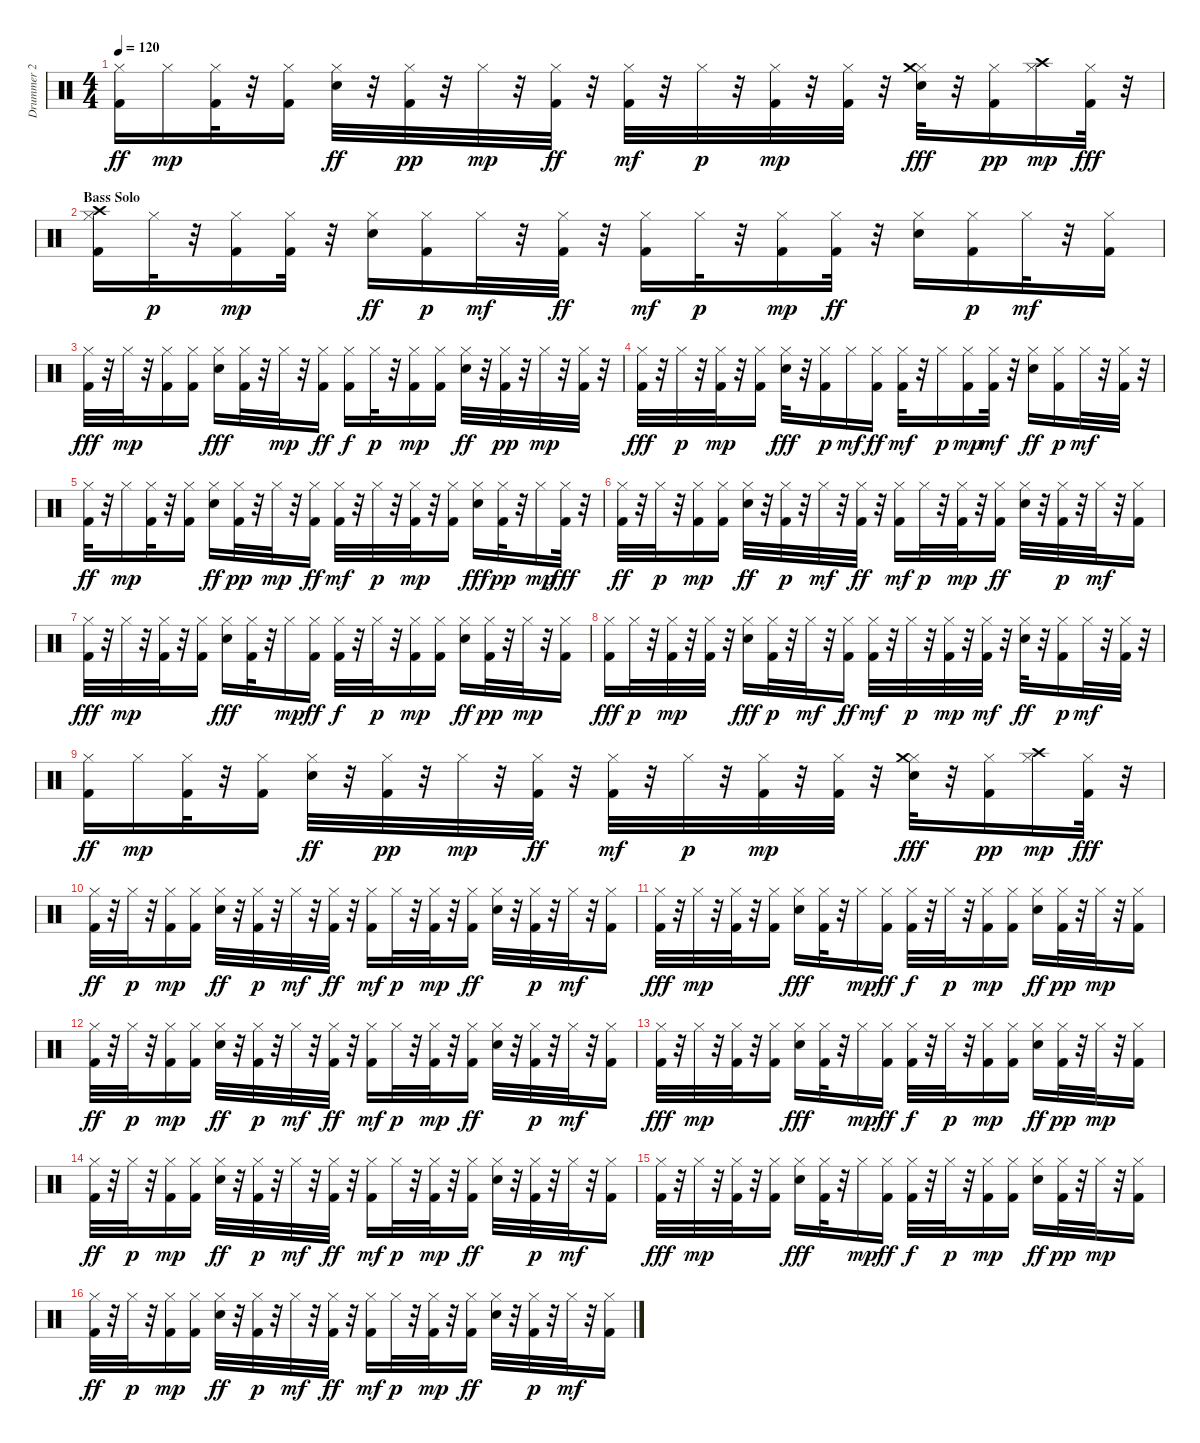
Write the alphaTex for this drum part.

\track ("Drummer 2" "Drummer 2") {instrument percussion}
\staff {score}
\articulation defaults
\ts (4 4)
\tempo 120
\clef neutral
\ks c
("Kick (hit) 2" "Hi-Hat (closed)").16{dy ff} "Hi-Hat (closed)".16{dy mp} ("Kick (hit) 2" "Hi-Hat (closed)").32 r.32 ("Kick (hit) 2" "Hi-Hat (closed)").16 ("Hi-Hat (closed)" "Snare (hit) 2").32{dy ff} r.32 ("Kick (hit) 2" "Hi-Hat (closed)").32{dy pp} r.32 "Hi-Hat (closed)".32{dy mp} r.32 ("Kick (hit) 2" "Hi-Hat (closed)").32{dy ff} r.32 ("Kick (hit) 2" "Hi-Hat (closed)").32{dy mf} r.32 "Hi-Hat (closed)".32{dy p} r.32 ("Kick (hit) 2" "Hi-Hat (closed)").32{dy mp} r.32 ("Kick (hit) 2" "Hi-Hat (closed)").32 r.32 ("Hi-Hat (closed)" "Crash medium (hit)" "Snare (hit) 2").32{dy fff} r.32 ("Kick (hit) 2" "Hi-Hat (closed)").16{dy pp} ("Hi-Hat (closed)" "Crash high (hit)").16{dy mp} ("Hi-Hat (closed)" "Kick (hit) 2").32{dy fff} r.32 |
\section ("" "Bass Solo")
("Kick (hit) 2" "Hi-Hat (closed)" "Crash high (hit)").16 "Hi-Hat (closed)".32{dy p} r.32 ("Kick (hit) 2" "Hi-Hat (closed)").16{dy mp} ("Kick (hit) 2" "Hi-Hat (closed)").32 r.32 ("Hi-Hat (closed)" "Snare (hit) 2").16{dy ff} ("Kick (hit) 2" "Hi-Hat (closed)").16{dy p} "Hi-Hat (closed)".32{dy mf} r.32 ("Kick (hit) 2" "Hi-Hat (closed)").32{dy ff} r.32 ("Kick (hit) 2" "Hi-Hat (closed)").16{dy mf} "Hi-Hat (closed)".32{dy p} r.32 ("Kick (hit) 2" "Hi-Hat (closed)").16{dy mp} ("Kick (hit) 2" "Hi-Hat (closed)").32{dy ff} r.32 ("Hi-Hat (closed)" "Snare (hit) 2").16 ("Kick (hit) 2" "Hi-Hat (closed)").16{dy p} "Hi-Hat (closed)".32{dy mf} r.32 ("Kick (hit) 2" "Hi-Hat (closed)").16 |
("Hi-Hat (closed)" "Kick (hit) 2").32{dy fff} r.32 "Hi-Hat (closed)".32{dy mp} r.32 ("Kick (hit) 2" "Hi-Hat (closed)").16 ("Kick (hit) 2" "Hi-Hat (closed)").16 ("Hi-Hat (closed)" "Snare (hit) 2").16{dy fff} ("Hi-Hat (closed)" "Kick (hit) 2").32 r.32 "Hi-Hat (closed)".32{dy mp} r.32 ("Kick (hit) 2" "Hi-Hat (closed)").16{dy ff} ("Hi-Hat (closed)" "Kick (hit) 2").16{dy f} "Hi-Hat (closed)".32{dy p} r.32 ("Kick (hit) 2" "Hi-Hat (closed)").16{dy mp} ("Kick (hit) 2" "Hi-Hat (closed)").16 ("Hi-Hat (closed)" "Snare (hit) 2").32{dy ff} r.32 ("Kick (hit) 2" "Hi-Hat (closed)").32{dy pp} r.32 "Hi-Hat (closed)".32{dy mp} r.32 ("Kick (hit) 2" "Hi-Hat (closed)").32 r.32 |
("Hi-Hat (closed)" "Kick (hit) 2").32{dy fff} r.32 "Hi-Hat (closed)".32{dy p} r.32 ("Kick (hit) 2" "Hi-Hat (closed)").32{dy mp} r.32 ("Kick (hit) 2" "Hi-Hat (closed)").16 ("Hi-Hat (closed)" "Snare (hit) 2").32{dy fff} r.32 ("Kick (hit) 2" "Hi-Hat (closed)").16{dy p} "Hi-Hat (closed)".16{dy mf} ("Hi-Hat (closed)" "Kick (hit) 2").16{dy ff} ("Kick (hit) 2" "Hi-Hat (closed)").32{dy mf} r.32 "Hi-Hat (closed)".16{dy p} ("Kick (hit) 2" "Hi-Hat (closed)").16{dy mp} ("Hi-Hat (closed)" "Kick (hit) 2").32{dy mf} r.32 ("Hi-Hat (closed)" "Snare (hit) 2").16{dy ff} ("Kick (hit) 2" "Hi-Hat (closed)").16{dy p} "Hi-Hat (closed)".32{dy mf} r.32 ("Kick (hit) 2" "Hi-Hat (closed)").32 r.32 |
("Kick (hit) 2" "Hi-Hat (closed)").32{dy ff} r.32 "Hi-Hat (closed)".16{dy mp} ("Kick (hit) 2" "Hi-Hat (closed)").32 r.32 ("Kick (hit) 2" "Hi-Hat (closed)").16 ("Hi-Hat (closed)" "Snare (hit) 2").16{dy ff} ("Kick (hit) 2" "Hi-Hat (closed)").32{dy pp} r.32 "Hi-Hat (closed)".32{dy mp} r.32 ("Kick (hit) 2" "Hi-Hat (closed)").16{dy ff} ("Kick (hit) 2" "Hi-Hat (closed)").32{dy mf} r.32 "Hi-Hat (closed)".32{dy p} r.32 ("Kick (hit) 2" "Hi-Hat (closed)").32{dy mp} r.32 ("Kick (hit) 2" "Hi-Hat (closed)").16 ("Hi-Hat (closed)" "Snare (hit) 2").16{dy fff} ("Kick (hit) 2" "Hi-Hat (closed)").32{dy pp} r.32 "Hi-Hat (closed)".16{dy mp} ("Hi-Hat (closed)" "Kick (hit) 2").32{dy fff} r.32 |
("Kick (hit) 2" "Hi-Hat (closed)").32{dy ff} r.32 "Hi-Hat (closed)".32{dy p} r.32 ("Kick (hit) 2" "Hi-Hat (closed)").16{dy mp} ("Kick (hit) 2" "Hi-Hat (closed)").16 ("Hi-Hat (closed)" "Snare (hit) 2").32{dy ff} r.32 ("Kick (hit) 2" "Hi-Hat (closed)").32{dy p} r.32 "Hi-Hat (closed)".32{dy mf} r.32 ("Kick (hit) 2" "Hi-Hat (closed)").32{dy ff} r.32 ("Kick (hit) 2" "Hi-Hat (closed)").16{dy mf} "Hi-Hat (closed)".32{dy p} r.32 ("Kick (hit) 2" "Hi-Hat (closed)").32{dy mp} r.32 ("Kick (hit) 2" "Hi-Hat (closed)").16{dy ff} ("Hi-Hat (closed)" "Snare (hit) 2").32 r.32 ("Kick (hit) 2" "Hi-Hat (closed)").32{dy p} r.32 "Hi-Hat (closed)".32{dy mf} r.32 ("Kick (hit) 2" "Hi-Hat (closed)").16 |
("Hi-Hat (closed)" "Kick (hit) 2").32{dy fff} r.32 "Hi-Hat (closed)".32{dy mp} r.32 ("Kick (hit) 2" "Hi-Hat (closed)").32 r.32 ("Kick (hit) 2" "Hi-Hat (closed)").16 ("Hi-Hat (closed)" "Snare (hit) 2").16{dy fff} ("Hi-Hat (closed)" "Kick (hit) 2").32 r.32 "Hi-Hat (closed)".16{dy mp} ("Kick (hit) 2" "Hi-Hat (closed)").16{dy ff} ("Hi-Hat (closed)" "Kick (hit) 2").32{dy f} r.32 "Hi-Hat (closed)".32{dy p} r.32 ("Kick (hit) 2" "Hi-Hat (closed)").16{dy mp} ("Kick (hit) 2" "Hi-Hat (closed)").16 ("Hi-Hat (closed)" "Snare (hit) 2").16{dy ff} ("Kick (hit) 2" "Hi-Hat (closed)").32{dy pp} r.32 "Hi-Hat (closed)".32{dy mp} r.32 ("Kick (hit) 2" "Hi-Hat (closed)").16 |
("Hi-Hat (closed)" "Kick (hit) 2").16{dy fff} "Hi-Hat (closed)".32{dy p} r.32 ("Kick (hit) 2" "Hi-Hat (closed)").32{dy mp} r.32 ("Kick (hit) 2" "Hi-Hat (closed)").32 r.32 ("Hi-Hat (closed)" "Snare (hit) 2").16{dy fff} ("Kick (hit) 2" "Hi-Hat (closed)").32{dy p} r.32 "Hi-Hat (closed)".32{dy mf} r.32 ("Hi-Hat (closed)" "Kick (hit) 2").16{dy ff} ("Kick (hit) 2" "Hi-Hat (closed)").32{dy mf} r.32 "Hi-Hat (closed)".32{dy p} r.32 ("Kick (hit) 2" "Hi-Hat (closed)").32{dy mp} r.32 ("Hi-Hat (closed)" "Kick (hit) 2").32{dy mf} r.32 ("Hi-Hat (closed)" "Snare (hit) 2").32{dy ff} r.32 ("Kick (hit) 2" "Hi-Hat (closed)").16{dy p} "Hi-Hat (closed)".32{dy mf} r.32 ("Kick (hit) 2" "Hi-Hat (closed)").32 r.32 |
("Kick (hit) 2" "Hi-Hat (closed)").16{dy ff} "Hi-Hat (closed)".16{dy mp} ("Kick (hit) 2" "Hi-Hat (closed)").32 r.32 ("Kick (hit) 2" "Hi-Hat (closed)").16 ("Hi-Hat (closed)" "Snare (hit) 2").32{dy ff} r.32 ("Kick (hit) 2" "Hi-Hat (closed)").32{dy pp} r.32 "Hi-Hat (closed)".32{dy mp} r.32 ("Kick (hit) 2" "Hi-Hat (closed)").32{dy ff} r.32 ("Kick (hit) 2" "Hi-Hat (closed)").32{dy mf} r.32 "Hi-Hat (closed)".32{dy p} r.32 ("Kick (hit) 2" "Hi-Hat (closed)").32{dy mp} r.32 ("Kick (hit) 2" "Hi-Hat (closed)").32 r.32 ("Hi-Hat (closed)" "Crash medium (hit)" "Snare (hit) 2").32{dy fff} r.32 ("Kick (hit) 2" "Hi-Hat (closed)").16{dy pp} ("Hi-Hat (closed)" "Crash high (hit)").16{dy mp} ("Hi-Hat (closed)" "Kick (hit) 2").32{dy fff} r.32 |
("Kick (hit) 2" "Hi-Hat (closed)").32{dy ff} r.32 "Hi-Hat (closed)".32{dy p} r.32 ("Kick (hit) 2" "Hi-Hat (closed)").16{dy mp} ("Kick (hit) 2" "Hi-Hat (closed)").16 ("Hi-Hat (closed)" "Snare (hit) 2").32{dy ff} r.32 ("Kick (hit) 2" "Hi-Hat (closed)").32{dy p} r.32 "Hi-Hat (closed)".32{dy mf} r.32 ("Kick (hit) 2" "Hi-Hat (closed)").32{dy ff} r.32 ("Kick (hit) 2" "Hi-Hat (closed)").16{dy mf} "Hi-Hat (closed)".32{dy p} r.32 ("Kick (hit) 2" "Hi-Hat (closed)").32{dy mp} r.32 ("Kick (hit) 2" "Hi-Hat (closed)").16{dy ff} ("Hi-Hat (closed)" "Snare (hit) 2").32 r.32 ("Kick (hit) 2" "Hi-Hat (closed)").32{dy p} r.32 "Hi-Hat (closed)".32{dy mf} r.32 ("Kick (hit) 2" "Hi-Hat (closed)").16 |
("Hi-Hat (closed)" "Kick (hit) 2").32{dy fff} r.32 "Hi-Hat (closed)".32{dy mp} r.32 ("Kick (hit) 2" "Hi-Hat (closed)").32 r.32 ("Kick (hit) 2" "Hi-Hat (closed)").16 ("Hi-Hat (closed)" "Snare (hit) 2").16{dy fff} ("Hi-Hat (closed)" "Kick (hit) 2").32 r.32 "Hi-Hat (closed)".16{dy mp} ("Kick (hit) 2" "Hi-Hat (closed)").16{dy ff} ("Hi-Hat (closed)" "Kick (hit) 2").32{dy f} r.32 "Hi-Hat (closed)".32{dy p} r.32 ("Kick (hit) 2" "Hi-Hat (closed)").16{dy mp} ("Kick (hit) 2" "Hi-Hat (closed)").16 ("Hi-Hat (closed)" "Snare (hit) 2").16{dy ff} ("Kick (hit) 2" "Hi-Hat (closed)").32{dy pp} r.32 "Hi-Hat (closed)".32{dy mp} r.32 ("Kick (hit) 2" "Hi-Hat (closed)").16 |
("Kick (hit) 2" "Hi-Hat (closed)").32{dy ff} r.32 "Hi-Hat (closed)".32{dy p} r.32 ("Kick (hit) 2" "Hi-Hat (closed)").16{dy mp} ("Kick (hit) 2" "Hi-Hat (closed)").16 ("Hi-Hat (closed)" "Snare (hit) 2").32{dy ff} r.32 ("Kick (hit) 2" "Hi-Hat (closed)").32{dy p} r.32 "Hi-Hat (closed)".32{dy mf} r.32 ("Kick (hit) 2" "Hi-Hat (closed)").32{dy ff} r.32 ("Kick (hit) 2" "Hi-Hat (closed)").16{dy mf} "Hi-Hat (closed)".32{dy p} r.32 ("Kick (hit) 2" "Hi-Hat (closed)").32{dy mp} r.32 ("Kick (hit) 2" "Hi-Hat (closed)").16{dy ff} ("Hi-Hat (closed)" "Snare (hit) 2").32 r.32 ("Kick (hit) 2" "Hi-Hat (closed)").32{dy p} r.32 "Hi-Hat (closed)".32{dy mf} r.32 ("Kick (hit) 2" "Hi-Hat (closed)").16 |
("Hi-Hat (closed)" "Kick (hit) 2").32{dy fff} r.32 "Hi-Hat (closed)".32{dy mp} r.32 ("Kick (hit) 2" "Hi-Hat (closed)").32 r.32 ("Kick (hit) 2" "Hi-Hat (closed)").16 ("Hi-Hat (closed)" "Snare (hit) 2").16{dy fff} ("Hi-Hat (closed)" "Kick (hit) 2").32 r.32 "Hi-Hat (closed)".16{dy mp} ("Kick (hit) 2" "Hi-Hat (closed)").16{dy ff} ("Hi-Hat (closed)" "Kick (hit) 2").32{dy f} r.32 "Hi-Hat (closed)".32{dy p} r.32 ("Kick (hit) 2" "Hi-Hat (closed)").16{dy mp} ("Kick (hit) 2" "Hi-Hat (closed)").16 ("Hi-Hat (closed)" "Snare (hit) 2").16{dy ff} ("Kick (hit) 2" "Hi-Hat (closed)").32{dy pp} r.32 "Hi-Hat (closed)".32{dy mp} r.32 ("Kick (hit) 2" "Hi-Hat (closed)").16 |
("Kick (hit) 2" "Hi-Hat (closed)").32{dy ff} r.32 "Hi-Hat (closed)".32{dy p} r.32 ("Kick (hit) 2" "Hi-Hat (closed)").16{dy mp} ("Kick (hit) 2" "Hi-Hat (closed)").16 ("Hi-Hat (closed)" "Snare (hit) 2").32{dy ff} r.32 ("Kick (hit) 2" "Hi-Hat (closed)").32{dy p} r.32 "Hi-Hat (closed)".32{dy mf} r.32 ("Kick (hit) 2" "Hi-Hat (closed)").32{dy ff} r.32 ("Kick (hit) 2" "Hi-Hat (closed)").16{dy mf} "Hi-Hat (closed)".32{dy p} r.32 ("Kick (hit) 2" "Hi-Hat (closed)").32{dy mp} r.32 ("Kick (hit) 2" "Hi-Hat (closed)").16{dy ff} ("Hi-Hat (closed)" "Snare (hit) 2").32 r.32 ("Kick (hit) 2" "Hi-Hat (closed)").32{dy p} r.32 "Hi-Hat (closed)".32{dy mf} r.32 ("Kick (hit) 2" "Hi-Hat (closed)").16 |
("Hi-Hat (closed)" "Kick (hit) 2").32{dy fff} r.32 "Hi-Hat (closed)".32{dy mp} r.32 ("Kick (hit) 2" "Hi-Hat (closed)").32 r.32 ("Kick (hit) 2" "Hi-Hat (closed)").16 ("Hi-Hat (closed)" "Snare (hit) 2").16{dy fff} ("Hi-Hat (closed)" "Kick (hit) 2").32 r.32 "Hi-Hat (closed)".16{dy mp} ("Kick (hit) 2" "Hi-Hat (closed)").16{dy ff} ("Hi-Hat (closed)" "Kick (hit) 2").32{dy f} r.32 "Hi-Hat (closed)".32{dy p} r.32 ("Kick (hit) 2" "Hi-Hat (closed)").16{dy mp} ("Kick (hit) 2" "Hi-Hat (closed)").16 ("Hi-Hat (closed)" "Snare (hit) 2").16{dy ff} ("Kick (hit) 2" "Hi-Hat (closed)").32{dy pp} r.32 "Hi-Hat (closed)".32{dy mp} r.32 ("Kick (hit) 2" "Hi-Hat (closed)").16 |
("Kick (hit) 2" "Hi-Hat (closed)").32{dy ff} r.32 "Hi-Hat (closed)".32{dy p} r.32 ("Kick (hit) 2" "Hi-Hat (closed)").16{dy mp} ("Kick (hit) 2" "Hi-Hat (closed)").16 ("Hi-Hat (closed)" "Snare (hit) 2").32{dy ff} r.32 ("Kick (hit) 2" "Hi-Hat (closed)").32{dy p} r.32 "Hi-Hat (closed)".32{dy mf} r.32 ("Kick (hit) 2" "Hi-Hat (closed)").32{dy ff} r.32 ("Kick (hit) 2" "Hi-Hat (closed)").16{dy mf} "Hi-Hat (closed)".32{dy p} r.32 ("Kick (hit) 2" "Hi-Hat (closed)").32{dy mp} r.32 ("Kick (hit) 2" "Hi-Hat (closed)").16{dy ff} ("Hi-Hat (closed)" "Snare (hit) 2").32 r.32 ("Kick (hit) 2" "Hi-Hat (closed)").32{dy p} r.32 "Hi-Hat (closed)".32{dy mf} r.32 ("Kick (hit) 2" "Hi-Hat (closed)").16
